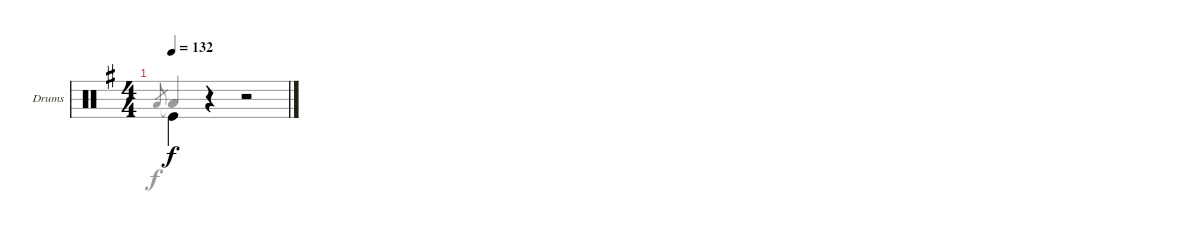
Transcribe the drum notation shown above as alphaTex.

\bracketExtendMode groupsimilarinstruments
\firstSystemTrackNameOrientation horizontal
\otherSystemsTrackNameOrientation horizontal
\track ("Drums" "Drums") {instrument percussion}
\staff {score}
\articulation defaults
\voice
\ts (4 4)
\tempo 132
\clef neutral
\scale
1.04288
\ks g "Kick (hit)".4{dy f beam invert}
r.4 r.2
\voice
\clef neutral
\ottava regular
\simile none
\scale
1.04288
\ks g "Low Tom (hit)".8{gr dy f beam invert} "Low Tom (hit)"{t}.4{beam invert}
r.4 r.2
